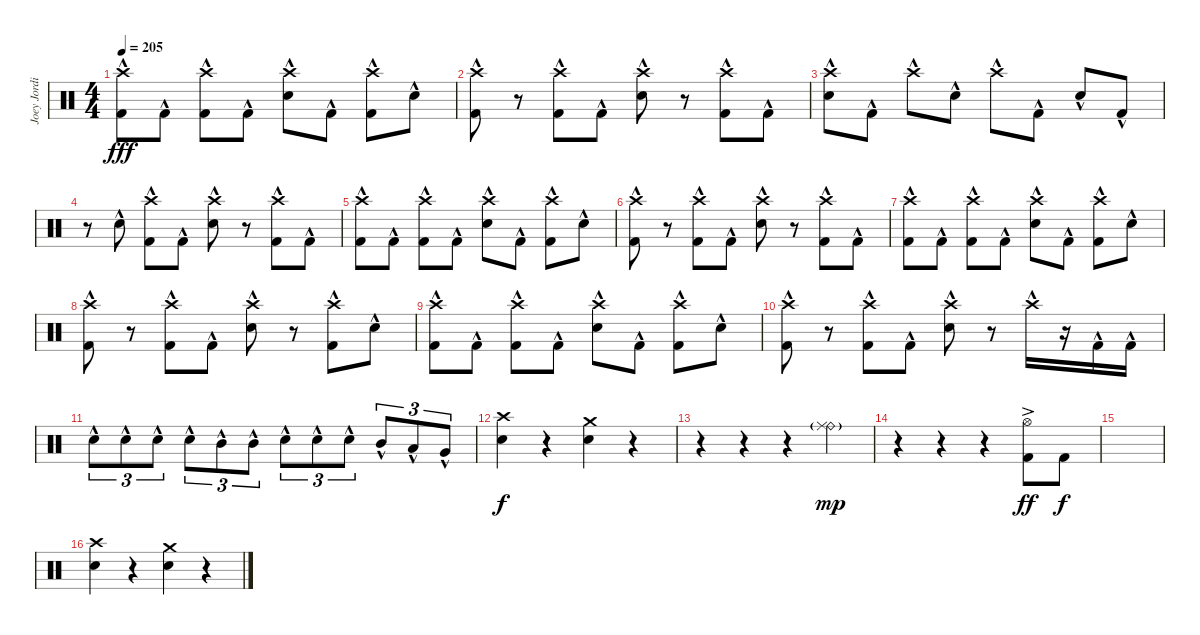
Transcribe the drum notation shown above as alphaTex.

\track ("Joey Jordison" "Joey Jordi") {instrument percussion}
\staff {score}
\articulation defaults
\ts (4 4)
\tempo 205
\clef neutral
\ks c
("Crash high (hit)"{hac} "Kick (hit) 2"{hac}).8{dy fff} "Kick (hit) 2"{hac}.8 ("Crash high (hit)"{hac} "Kick (hit) 2"{hac}).8 "Kick (hit) 2"{hac}.8 ("Crash high (hit)"{hac} "Electric Snare (hit)"{hac}).8 "Kick (hit) 2"{hac}.8 ("Crash high (hit)"{hac} "Kick (hit) 2"{hac}).8 "Electric Snare (hit)"{hac}.8 |
("Crash high (hit)"{hac} "Kick (hit) 2"{hac}).8 r.8 ("Crash high (hit)"{hac} "Kick (hit) 2"{hac}).8 "Kick (hit) 2"{hac}.8 ("Crash high (hit)"{hac} "Electric Snare (hit)"{hac}).8 r.8 ("Crash high (hit)"{hac} "Kick (hit) 2"{hac}).8 "Kick (hit) 2"{hac}.8 |
("Crash high (hit)"{hac} "Electric Snare (hit)"{hac}).8 "Kick (hit) 2"{hac}.8 "Crash high (hit)"{hac}.8 "Electric Snare (hit)"{hac}.8 "Crash high (hit)"{hac}.8 "Kick (hit) 2"{hac}.8 "Electric Snare (hit)"{hac}.8 "Kick (hit) 2"{hac}.8 |
r.8 "Electric Snare (hit)"{hac}.8 ("Crash high (hit)"{hac} "Kick (hit) 2"{hac}).8 "Kick (hit) 2"{hac}.8 ("Crash high (hit)"{hac} "Electric Snare (hit)"{hac}).8 r.8 ("Crash high (hit)"{hac} "Kick (hit) 2"{hac}).8 "Kick (hit) 2"{hac}.8 |
("Crash high (hit)"{hac} "Kick (hit) 2"{hac}).8 "Kick (hit) 2"{hac}.8 ("Crash high (hit)"{hac} "Kick (hit) 2"{hac}).8 "Kick (hit) 2"{hac}.8 ("Crash high (hit)"{hac} "Electric Snare (hit)"{hac}).8 "Kick (hit) 2"{hac}.8 ("Crash high (hit)"{hac} "Kick (hit) 2"{hac}).8 "Electric Snare (hit)"{hac}.8 |
("Crash high (hit)"{hac} "Kick (hit) 2"{hac}).8 r.8 ("Crash high (hit)"{hac} "Kick (hit) 2"{hac}).8 "Kick (hit) 2"{hac}.8 ("Crash high (hit)"{hac} "Electric Snare (hit)"{hac}).8 r.8 ("Crash high (hit)"{hac} "Kick (hit) 2"{hac}).8 "Kick (hit) 2"{hac}.8 |
("Crash high (hit)"{hac} "Kick (hit) 2"{hac}).8 "Kick (hit) 2"{hac}.8 ("Crash high (hit)"{hac} "Kick (hit) 2"{hac}).8 "Kick (hit) 2"{hac}.8 ("Crash high (hit)"{hac} "Electric Snare (hit)"{hac}).8 "Kick (hit) 2"{hac}.8 ("Crash high (hit)"{hac} "Kick (hit) 2"{hac}).8 "Electric Snare (hit)"{hac}.8 |
("Crash high (hit)"{hac} "Kick (hit) 2"{hac}).8 r.8 ("Crash high (hit)"{hac} "Kick (hit) 2"{hac}).8 "Kick (hit) 2"{hac}.8 ("Crash high (hit)"{hac} "Electric Snare (hit)"{hac}).8 r.8 ("Crash high (hit)"{hac} "Kick (hit) 2"{hac}).8 "Electric Snare (hit)"{hac}.8 |
("Crash high (hit)"{hac} "Kick (hit) 2"{hac}).8 "Kick (hit) 2"{hac}.8 ("Crash high (hit)"{hac} "Kick (hit) 2"{hac}).8 "Kick (hit) 2"{hac}.8 ("Crash high (hit)"{hac} "Electric Snare (hit)"{hac}).8 "Kick (hit) 2"{hac}.8 ("Crash high (hit)"{hac} "Kick (hit) 2"{hac}).8 "Electric Snare (hit)"{hac}.8 |
("Crash high (hit)"{hac} "Kick (hit) 2"{hac}).8 r.8 ("Crash high (hit)"{hac} "Kick (hit) 2"{hac}).8 "Kick (hit) 2"{hac}.8 ("Crash high (hit)"{hac} "Electric Snare (hit)"{hac}).8 r.8 "Crash high (hit)"{hac}.16 r.16 "Kick (hit) 2"{hac}.16 "Kick (hit) 2"{hac}.16 |
"Electric Snare (hit)"{hac}.8{tu (3 2)} "Electric Snare (hit)"{hac}.8{tu (3 2)} "Electric Snare (hit)"{hac}.8{tu (3 2)} "Electric Snare (hit)"{hac}.8{tu (3 2)} "Mid Tom (hit)"{hac}.8{tu (3 2)} "Mid Tom (hit)"{hac}.8{tu (3 2)} "Electric Snare (hit)"{hac}.8{tu (3 2)} "Electric Snare (hit)"{hac}.8{tu (3 2)} "Electric Snare (hit)"{hac}.8{tu (3 2)} "Mid Tom (hit)"{hac}.8{tu (3 2)} "Low Tom (hit)"{hac}.8{tu (3 2)} "Very Low Tom (hit)"{hac}.8{tu (3 2)} |
("Crash high (hit)" "Electric Snare (hit)").4{dy f} r.4 ("Crash medium (hit)" "Electric Snare (hit)").4 r.4 |
r.4 r.4 r.4 ("Ride (bell)"{g} "Ride (middle)").4{dy mp} |
r.4 r.4 r.4 ("Hi-Hat (open)"{ac} "Kick (hit) 2").8{dy ff} "Kick (hit) 2".8{dy f} |
|
("Crash high (hit)" "Electric Snare (hit)").4 r.4 ("Crash medium (hit)" "Electric Snare (hit)").4 r.4
